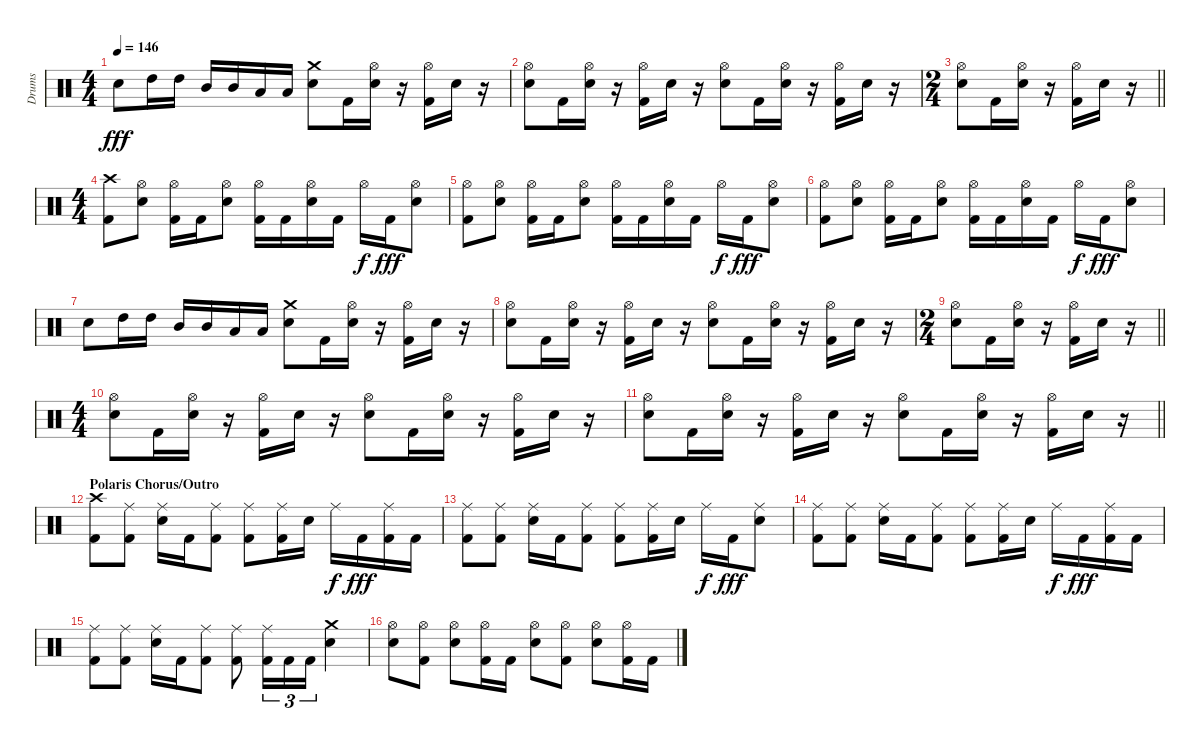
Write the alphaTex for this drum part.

\track ("Drums" "Drums") {instrument percussion}
\staff {score}
\articulation defaults
\ts (4 4)
\tempo 146
\clef neutral
\ks c "Snare (hit) 2".8{dy fff} "High Tom (hit)".16 "High Tom (hit)".16 "Mid Tom (hit)".16 "Mid Tom (hit)".16 "Low Tom (hit)".16 "Low Tom (hit)".16
("Crash medium (hit)" "Snare (hit) 2").8 "Kick (hit) 2".16 ("Hi-Hat (open)" "Snare (hit) 2").16 r.16 ("Hi-Hat (open)" "Kick (hit) 2").16 "Snare (hit) 2".16 r.16 |
("Hi-Hat (open)" "Snare (hit) 2").8 "Kick (hit) 2".16 ("Hi-Hat (open)" "Snare (hit) 2").16 r.16 ("Hi-Hat (open)" "Kick (hit) 2").16 "Snare (hit) 2".16 r.16 ("Hi-Hat (open)" "Snare (hit) 2").8 "Kick (hit) 2".16 ("Hi-Hat (open)" "Snare (hit) 2").16 r.16 ("Hi-Hat (open)" "Kick (hit) 2").16 "Snare (hit) 2".16 r.16 |
\ts (2 4)
\barLineRight lightlight
("Hi-Hat (open)" "Snare (hit) 2").8 "Kick (hit) 2".16 ("Hi-Hat (open)" "Snare (hit) 2").16 r.16 ("Hi-Hat (open)" "Kick (hit) 2").16 "Snare (hit) 2".16 r.16 |
\ts (4 4)
("Crash high (hit)" "Kick (hit) 2").8 ("Hi-Hat (open)" "Snare (hit) 2").8 ("Hi-Hat (open)" "Kick (hit) 2").16 "Kick (hit) 2".16 ("Hi-Hat (open)" "Snare (hit) 2").8 ("Hi-Hat (open)" "Kick (hit) 2").16 "Kick (hit) 2".16 ("Hi-Hat (open)" "Snare (hit) 2").16 "Kick (hit) 2".16 "Hi-Hat (open)".16{dy f} "Kick (hit) 2".16{dy fff} ("Hi-Hat (open)" "Snare (hit) 2").8 |
("Hi-Hat (open)" "Kick (hit) 2").8 ("Hi-Hat (open)" "Snare (hit) 2").8 ("Hi-Hat (open)" "Kick (hit) 2").16 "Kick (hit) 2".16 ("Hi-Hat (open)" "Snare (hit) 2").8 ("Hi-Hat (open)" "Kick (hit) 2").16 "Kick (hit) 2".16 ("Hi-Hat (open)" "Snare (hit) 2").16 "Kick (hit) 2".16 "Hi-Hat (open)".16{dy f} "Kick (hit) 2".16{dy fff} ("Hi-Hat (open)" "Snare (hit) 2").8 |
("Hi-Hat (open)" "Kick (hit) 2").8 ("Hi-Hat (open)" "Snare (hit) 2").8 ("Hi-Hat (open)" "Kick (hit) 2").16 "Kick (hit) 2".16 ("Hi-Hat (open)" "Snare (hit) 2").8 ("Hi-Hat (open)" "Kick (hit) 2").16 "Kick (hit) 2".16 ("Hi-Hat (open)" "Snare (hit) 2").16 "Kick (hit) 2".16 "Hi-Hat (open)".16{dy f} "Kick (hit) 2".16{dy fff} ("Hi-Hat (open)" "Snare (hit) 2").8 |
"Snare (hit) 2".8 "High Tom (hit)".16 "High Tom (hit)".16 "Mid Tom (hit)".16 "Mid Tom (hit)".16 "Low Tom (hit)".16 "Low Tom (hit)".16 ("Crash medium (hit)" "Snare (hit) 2").8 "Kick (hit) 2".16 ("Hi-Hat (open)" "Snare (hit) 2").16 r.16 ("Hi-Hat (open)" "Kick (hit) 2").16 "Snare (hit) 2".16 r.16 |
("Hi-Hat (open)" "Snare (hit) 2").8 "Kick (hit) 2".16 ("Hi-Hat (open)" "Snare (hit) 2").16 r.16 ("Hi-Hat (open)" "Kick (hit) 2").16 "Snare (hit) 2".16 r.16 ("Hi-Hat (open)" "Snare (hit) 2").8 "Kick (hit) 2".16 ("Hi-Hat (open)" "Snare (hit) 2").16 r.16 ("Hi-Hat (open)" "Kick (hit) 2").16 "Snare (hit) 2".16 r.16 |
\ts (2 4)
\barLineRight lightlight
("Hi-Hat (open)" "Snare (hit) 2").8 "Kick (hit) 2".16 ("Hi-Hat (open)" "Snare (hit) 2").16 r.16 ("Hi-Hat (open)" "Kick (hit) 2").16 "Snare (hit) 2".16 r.16 |
\ts (4 4)
("Hi-Hat (open)" "Snare (hit) 2").8 "Kick (hit) 2".16 ("Hi-Hat (open)" "Snare (hit) 2").16 r.16 ("Hi-Hat (open)" "Kick (hit) 2").16 "Snare (hit) 2".16 r.16 ("Hi-Hat (open)" "Snare (hit) 2").8 "Kick (hit) 2".16 ("Hi-Hat (open)" "Snare (hit) 2").16 r.16 ("Hi-Hat (open)" "Kick (hit) 2").16 "Snare (hit) 2".16 r.16 |
\barLineRight lightlight
("Hi-Hat (open)" "Snare (hit) 2").8 "Kick (hit) 2".16 ("Hi-Hat (open)" "Snare (hit) 2").16 r.16 ("Hi-Hat (open)" "Kick (hit) 2").16 "Snare (hit) 2".16 r.16 ("Hi-Hat (open)" "Snare (hit) 2").8 "Kick (hit) 2".16 ("Hi-Hat (open)" "Snare (hit) 2").16 r.16 ("Hi-Hat (open)" "Kick (hit) 2").16 "Snare (hit) 2".16 r.16 |
\section ("" "Polaris Chorus/Outro")
("Crash high (hit)" "Kick (hit) 2").8 ("Ride (middle)" "Kick (hit) 2").8 ("Ride (middle)" "Snare (hit) 2").16 "Kick (hit) 2".16 ("Ride (middle)" "Kick (hit) 2").8 ("Ride (middle)" "Kick (hit) 2").8 ("Ride (middle)" "Kick (hit) 2").16 "Snare (hit) 2".16 "Ride (middle)".16{dy f} "Kick (hit) 2".16{dy fff} ("Ride (middle)" "Kick (hit) 2").16 "Kick (hit) 2".16 |
("Ride (middle)" "Kick (hit) 2").8 ("Ride (middle)" "Kick (hit) 2").8 ("Ride (middle)" "Snare (hit) 2").16 "Kick (hit) 2".16 ("Ride (middle)" "Kick (hit) 2").8 ("Ride (middle)" "Kick (hit) 2").8 ("Ride (middle)" "Kick (hit) 2").16 "Snare (hit) 2".16 "Ride (middle)".16{dy f} "Kick (hit) 2".16{dy fff} ("Ride (middle)" "Snare (hit) 2").8 |
("Ride (middle)" "Kick (hit) 2").8 ("Ride (middle)" "Kick (hit) 2").8 ("Ride (middle)" "Snare (hit) 2").16 "Kick (hit) 2".16 ("Ride (middle)" "Kick (hit) 2").8 ("Ride (middle)" "Kick (hit) 2").8 ("Ride (middle)" "Kick (hit) 2").16 "Snare (hit) 2".16 "Ride (middle)".16{dy f} "Kick (hit) 2".16{dy fff} ("Ride (middle)" "Kick (hit) 2").16 "Kick (hit) 2".16 |
("Ride (middle)" "Kick (hit) 2").8 ("Ride (middle)" "Kick (hit) 2").8 ("Ride (middle)" "Snare (hit) 2").16 "Kick (hit) 2".16 ("Ride (middle)" "Kick (hit) 2").8 ("Ride (middle)" "Kick (hit) 2").8 ("Ride (middle)" "Kick (hit) 2").16{tu (3 2)} "Kick (hit) 2".16{tu (3 2)} "Kick (hit) 2".16{tu (3 2)} ("Crash medium (hit)" "Snare (hit) 2").4 |
("Hi-Hat (open)" "Snare (hit) 2").8 ("Hi-Hat (open)" "Kick (hit) 2").8 ("Hi-Hat (open)" "Snare (hit) 2").8 ("Hi-Hat (open)" "Kick (hit) 2").16 "Kick (hit) 2".16 ("Hi-Hat (open)" "Snare (hit) 2").8 ("Hi-Hat (open)" "Kick (hit) 2").8 ("Hi-Hat (open)" "Snare (hit) 2").8 ("Hi-Hat (open)" "Kick (hit) 2").16 "Kick (hit) 2".16
